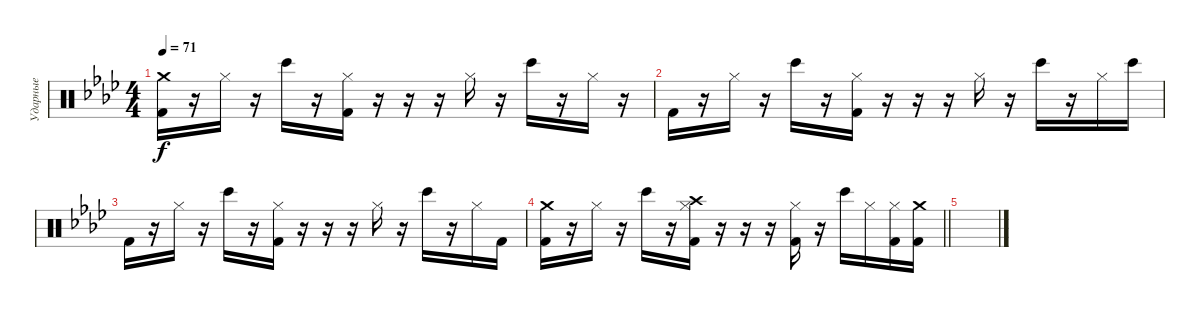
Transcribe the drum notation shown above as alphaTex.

\track ("Ударные" "Ударные") {instrument percussion}
\staff {score}
\articulation defaults
\ts (4 4)
\tempo 71
\clef neutral
\ks fminor
("Crash medium (hit)" "Kick (hit) 2").16{dy f} r.16 "Hi-Hat (closed)".16 r.16 "Bongo High (hit)".16 r.16 ("Hi-Hat (closed)" "Kick (hit) 2").16 r.16 r.16 r.16 "Hi-Hat (closed)".16 r.16 "Bongo High (hit)".16 r.16 "Hi-Hat (closed)".16 r.16 |
"Kick (hit) 2".16 r.16 "Hi-Hat (closed)".16 r.16 "Bongo High (hit)".16 r.16 ("Hi-Hat (closed)" "Kick (hit) 2").16 r.16 r.16 r.16 "Hi-Hat (closed)".16 r.16 "Bongo High (hit)".16 r.16 "Hi-Hat (closed)".16 "Bongo High (hit)".16 |
"Kick (hit) 2".16 r.16 "Hi-Hat (closed)".16 r.16 "Bongo High (hit)".16 r.16 ("Hi-Hat (closed)" "Kick (hit) 2").16 r.16 r.16 r.16 "Hi-Hat (closed)".16 r.16 "Bongo High (hit)".16 r.16 "Hi-Hat (closed)".16 "Kick (hit) 2".16 |
\barLineRight lightlight
("Crash medium (hit)" "Kick (hit) 2").16 r.16 "Hi-Hat (closed)".16 r.16 "Bongo High (hit)".16 r.16 ("Hi-Hat (closed)" "Kick (hit) 2" "Crash high (hit)").16 r.16 r.16 r.16 ("Hi-Hat (closed)" "Kick (hit) 2").16 r.16 "Bongo High (hit)".16 "Hi-Hat (closed)".16 ("Hi-Hat (closed)" "Kick (hit) 2").16 ("Crash medium (hit)" "Kick (hit) 2").16 |
\section ("" "")
